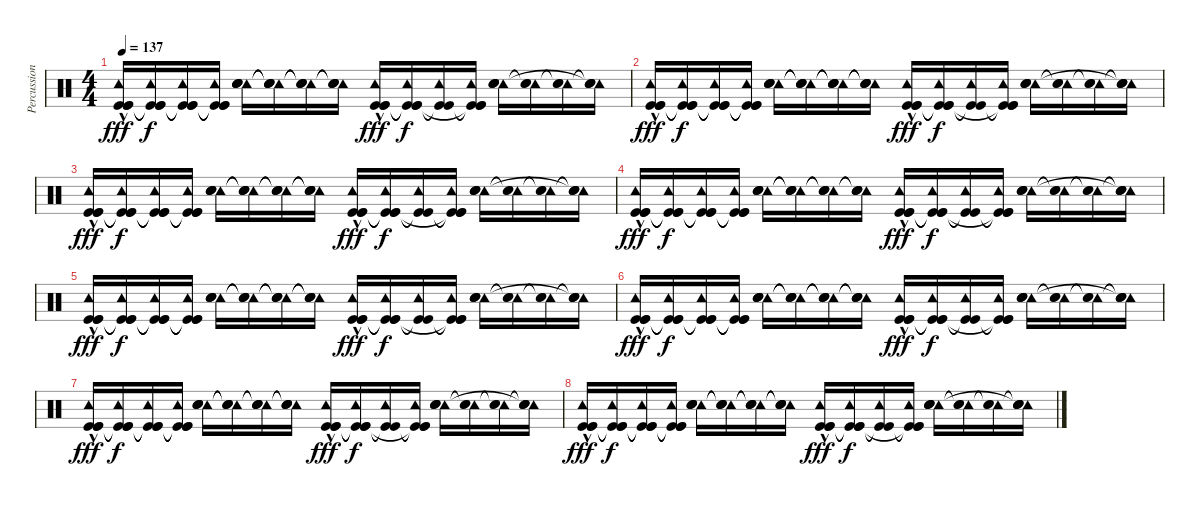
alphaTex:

\track ("Percussion" "Percussion") {instrument percussion}
\staff {score}
\articulation defaults
\ts (4 4)
\tempo 137
\clef neutral
\ks c
("Tambourine (hit)"{hac} "Kick (hit)" "Kick (hit)" "Kick (hit)").16{dy fff} ("Tambourine (hit)" "Kick (hit)"{t} "Kick (hit)"{t} "Kick (hit)"{t}).16{dy f} ("Tambourine (hit)" "Kick (hit)"{t} "Kick (hit)"{t} "Kick (hit)"{t}).16 ("Tambourine (hit)" "Kick (hit)"{t} "Kick (hit)"{t} "Kick (hit)"{t}).16 ("Tambourine (hit)" "Snare (hit) 2" "Snare (hit) 2" "Snare (hit) 2").16 ("Tambourine (hit)" "Snare (hit) 2"{t} "Snare (hit) 2"{t} "Snare (hit) 2"{t}).16 ("Tambourine (hit)" "Snare (hit) 2"{t} "Snare (hit) 2"{t} "Snare (hit) 2"{t}).16 ("Tambourine (hit)" "Snare (hit) 2"{t} "Snare (hit) 2"{t} "Snare (hit) 2"{t}).16 ("Tambourine (hit)"{hac} "Kick (hit)" "Kick (hit)" "Kick (hit)").16{dy fff} ("Tambourine (hit)" "Kick (hit)"{t} "Kick (hit)"{t} "Kick (hit)"{t}).16{dy f} ("Tambourine (hit)" "Kick (hit)"{t} "Kick (hit)"{t}).16 ("Tambourine (hit)" "Kick (hit)"{t} "Kick (hit)"{t} "Kick (hit)"{t}).16 ("Tambourine (hit)" "Snare (hit) 2" "Snare (hit) 2" "Snare (hit) 2").16 ("Tambourine (hit)" "Snare (hit) 2"{t} "Snare (hit) 2"{t}).16 ("Tambourine (hit)" "Snare (hit) 2"{t} "Snare (hit) 2"{t}).16 ("Tambourine (hit)" "Snare (hit) 2"{t} "Snare (hit) 2"{t} "Snare (hit) 2"{t}).16 |
("Tambourine (hit)"{hac} "Kick (hit)" "Kick (hit)" "Kick (hit)").16{dy fff} ("Tambourine (hit)" "Kick (hit)"{t} "Kick (hit)"{t} "Kick (hit)"{t}).16{dy f} ("Tambourine (hit)" "Kick (hit)"{t} "Kick (hit)"{t} "Kick (hit)"{t}).16 ("Tambourine (hit)" "Kick (hit)"{t} "Kick (hit)"{t} "Kick (hit)"{t}).16 ("Tambourine (hit)" "Snare (hit) 2" "Snare (hit) 2" "Snare (hit) 2").16 ("Tambourine (hit)" "Snare (hit) 2"{t} "Snare (hit) 2"{t} "Snare (hit) 2"{t}).16 ("Tambourine (hit)" "Snare (hit) 2"{t} "Snare (hit) 2"{t} "Snare (hit) 2"{t}).16 ("Tambourine (hit)" "Snare (hit) 2"{t} "Snare (hit) 2"{t} "Snare (hit) 2"{t}).16 ("Tambourine (hit)"{hac} "Kick (hit)" "Kick (hit)" "Kick (hit)").16{dy fff} ("Tambourine (hit)" "Kick (hit)"{t} "Kick (hit)"{t} "Kick (hit)"{t}).16{dy f} ("Tambourine (hit)" "Kick (hit)"{t} "Kick (hit)"{t}).16 ("Tambourine (hit)" "Kick (hit)"{t} "Kick (hit)"{t} "Kick (hit)"{t}).16 ("Tambourine (hit)" "Snare (hit) 2" "Snare (hit) 2" "Snare (hit) 2").16 ("Tambourine (hit)" "Snare (hit) 2"{t} "Snare (hit) 2"{t}).16 ("Tambourine (hit)" "Snare (hit) 2"{t} "Snare (hit) 2"{t}).16 ("Tambourine (hit)" "Snare (hit) 2"{t} "Snare (hit) 2"{t} "Snare (hit) 2"{t}).16 |
("Tambourine (hit)"{hac} "Kick (hit)" "Kick (hit)" "Kick (hit)").16{dy fff} ("Tambourine (hit)" "Kick (hit)"{t} "Kick (hit)"{t} "Kick (hit)"{t}).16{dy f} ("Tambourine (hit)" "Kick (hit)"{t} "Kick (hit)"{t} "Kick (hit)"{t}).16 ("Tambourine (hit)" "Kick (hit)"{t} "Kick (hit)"{t} "Kick (hit)"{t}).16 ("Tambourine (hit)" "Snare (hit) 2" "Snare (hit) 2" "Snare (hit) 2").16 ("Tambourine (hit)" "Snare (hit) 2"{t} "Snare (hit) 2"{t} "Snare (hit) 2"{t}).16 ("Tambourine (hit)" "Snare (hit) 2"{t} "Snare (hit) 2"{t} "Snare (hit) 2"{t}).16 ("Tambourine (hit)" "Snare (hit) 2"{t} "Snare (hit) 2"{t} "Snare (hit) 2"{t}).16 ("Tambourine (hit)"{hac} "Kick (hit)" "Kick (hit)" "Kick (hit)").16{dy fff} ("Tambourine (hit)" "Kick (hit)"{t} "Kick (hit)"{t} "Kick (hit)"{t}).16{dy f} ("Tambourine (hit)" "Kick (hit)"{t} "Kick (hit)"{t}).16 ("Tambourine (hit)" "Kick (hit)"{t} "Kick (hit)"{t} "Kick (hit)"{t}).16 ("Tambourine (hit)" "Snare (hit) 2" "Snare (hit) 2" "Snare (hit) 2").16 ("Tambourine (hit)" "Snare (hit) 2"{t} "Snare (hit) 2"{t}).16 ("Tambourine (hit)" "Snare (hit) 2"{t} "Snare (hit) 2"{t}).16 ("Tambourine (hit)" "Snare (hit) 2"{t} "Snare (hit) 2"{t} "Snare (hit) 2"{t}).16 |
("Tambourine (hit)"{hac} "Kick (hit)" "Kick (hit)" "Kick (hit)").16{dy fff} ("Tambourine (hit)" "Kick (hit)"{t} "Kick (hit)"{t} "Kick (hit)"{t}).16{dy f} ("Tambourine (hit)" "Kick (hit)"{t} "Kick (hit)"{t} "Kick (hit)"{t}).16 ("Tambourine (hit)" "Kick (hit)"{t} "Kick (hit)"{t} "Kick (hit)"{t}).16 ("Tambourine (hit)" "Snare (hit) 2" "Snare (hit) 2" "Snare (hit) 2").16 ("Tambourine (hit)" "Snare (hit) 2"{t} "Snare (hit) 2"{t} "Snare (hit) 2"{t}).16 ("Tambourine (hit)" "Snare (hit) 2"{t} "Snare (hit) 2"{t} "Snare (hit) 2"{t}).16 ("Tambourine (hit)" "Snare (hit) 2"{t} "Snare (hit) 2"{t} "Snare (hit) 2"{t}).16 ("Tambourine (hit)"{hac} "Kick (hit)" "Kick (hit)" "Kick (hit)").16{dy fff} ("Tambourine (hit)" "Kick (hit)"{t} "Kick (hit)"{t} "Kick (hit)"{t}).16{dy f} ("Tambourine (hit)" "Kick (hit)"{t} "Kick (hit)"{t}).16 ("Tambourine (hit)" "Kick (hit)"{t} "Kick (hit)"{t} "Kick (hit)"{t}).16 ("Tambourine (hit)" "Snare (hit) 2" "Snare (hit) 2" "Snare (hit) 2").16 ("Tambourine (hit)" "Snare (hit) 2"{t} "Snare (hit) 2"{t}).16 ("Tambourine (hit)" "Snare (hit) 2"{t} "Snare (hit) 2"{t}).16 ("Tambourine (hit)" "Snare (hit) 2"{t} "Snare (hit) 2"{t} "Snare (hit) 2"{t}).16 |
("Tambourine (hit)"{hac} "Kick (hit)" "Kick (hit)" "Kick (hit)").16{dy fff} ("Tambourine (hit)" "Kick (hit)"{t} "Kick (hit)"{t} "Kick (hit)"{t}).16{dy f} ("Tambourine (hit)" "Kick (hit)"{t} "Kick (hit)"{t} "Kick (hit)"{t}).16 ("Tambourine (hit)" "Kick (hit)"{t} "Kick (hit)"{t} "Kick (hit)"{t}).16 ("Tambourine (hit)" "Snare (hit) 2" "Snare (hit) 2" "Snare (hit) 2").16 ("Tambourine (hit)" "Snare (hit) 2"{t} "Snare (hit) 2"{t} "Snare (hit) 2"{t}).16 ("Tambourine (hit)" "Snare (hit) 2"{t} "Snare (hit) 2"{t} "Snare (hit) 2"{t}).16 ("Tambourine (hit)" "Snare (hit) 2"{t} "Snare (hit) 2"{t} "Snare (hit) 2"{t}).16 ("Tambourine (hit)"{hac} "Kick (hit)" "Kick (hit)" "Kick (hit)").16{dy fff} ("Tambourine (hit)" "Kick (hit)"{t} "Kick (hit)"{t} "Kick (hit)"{t}).16{dy f} ("Tambourine (hit)" "Kick (hit)"{t} "Kick (hit)"{t}).16 ("Tambourine (hit)" "Kick (hit)"{t} "Kick (hit)"{t} "Kick (hit)"{t}).16 ("Tambourine (hit)" "Snare (hit) 2" "Snare (hit) 2" "Snare (hit) 2").16 ("Tambourine (hit)" "Snare (hit) 2"{t} "Snare (hit) 2"{t}).16 ("Tambourine (hit)" "Snare (hit) 2"{t} "Snare (hit) 2"{t}).16 ("Tambourine (hit)" "Snare (hit) 2"{t} "Snare (hit) 2"{t} "Snare (hit) 2"{t}).16 |
("Tambourine (hit)"{hac} "Kick (hit)" "Kick (hit)" "Kick (hit)").16{dy fff} ("Tambourine (hit)" "Kick (hit)"{t} "Kick (hit)"{t} "Kick (hit)"{t}).16{dy f} ("Tambourine (hit)" "Kick (hit)"{t} "Kick (hit)"{t} "Kick (hit)"{t}).16 ("Tambourine (hit)" "Kick (hit)"{t} "Kick (hit)"{t} "Kick (hit)"{t}).16 ("Tambourine (hit)" "Snare (hit) 2" "Snare (hit) 2" "Snare (hit) 2").16 ("Tambourine (hit)" "Snare (hit) 2"{t} "Snare (hit) 2"{t} "Snare (hit) 2"{t}).16 ("Tambourine (hit)" "Snare (hit) 2"{t} "Snare (hit) 2"{t} "Snare (hit) 2"{t}).16 ("Tambourine (hit)" "Snare (hit) 2"{t} "Snare (hit) 2"{t} "Snare (hit) 2"{t}).16 ("Tambourine (hit)"{hac} "Kick (hit)" "Kick (hit)" "Kick (hit)").16{dy fff} ("Tambourine (hit)" "Kick (hit)"{t} "Kick (hit)"{t} "Kick (hit)"{t}).16{dy f} ("Tambourine (hit)" "Kick (hit)"{t} "Kick (hit)"{t}).16 ("Tambourine (hit)" "Kick (hit)"{t} "Kick (hit)"{t} "Kick (hit)"{t}).16 ("Tambourine (hit)" "Snare (hit) 2" "Snare (hit) 2" "Snare (hit) 2").16 ("Tambourine (hit)" "Snare (hit) 2"{t} "Snare (hit) 2"{t}).16 ("Tambourine (hit)" "Snare (hit) 2"{t} "Snare (hit) 2"{t}).16 ("Tambourine (hit)" "Snare (hit) 2"{t} "Snare (hit) 2"{t} "Snare (hit) 2"{t}).16 |
("Tambourine (hit)"{hac} "Kick (hit)" "Kick (hit)" "Kick (hit)").16{dy fff} ("Tambourine (hit)" "Kick (hit)"{t} "Kick (hit)"{t} "Kick (hit)"{t}).16{dy f} ("Tambourine (hit)" "Kick (hit)"{t} "Kick (hit)"{t} "Kick (hit)"{t}).16 ("Tambourine (hit)" "Kick (hit)"{t} "Kick (hit)"{t} "Kick (hit)"{t}).16 ("Tambourine (hit)" "Snare (hit) 2" "Snare (hit) 2" "Snare (hit) 2").16 ("Tambourine (hit)" "Snare (hit) 2"{t} "Snare (hit) 2"{t} "Snare (hit) 2"{t}).16 ("Tambourine (hit)" "Snare (hit) 2"{t} "Snare (hit) 2"{t} "Snare (hit) 2"{t}).16 ("Tambourine (hit)" "Snare (hit) 2"{t} "Snare (hit) 2"{t} "Snare (hit) 2"{t}).16 ("Tambourine (hit)"{hac} "Kick (hit)" "Kick (hit)" "Kick (hit)").16{dy fff} ("Tambourine (hit)" "Kick (hit)"{t} "Kick (hit)"{t} "Kick (hit)"{t}).16{dy f} ("Tambourine (hit)" "Kick (hit)"{t} "Kick (hit)"{t}).16 ("Tambourine (hit)" "Kick (hit)"{t} "Kick (hit)"{t} "Kick (hit)"{t}).16 ("Tambourine (hit)" "Snare (hit) 2" "Snare (hit) 2" "Snare (hit) 2").16 ("Tambourine (hit)" "Snare (hit) 2"{t} "Snare (hit) 2"{t}).16 ("Tambourine (hit)" "Snare (hit) 2"{t} "Snare (hit) 2"{t}).16 ("Tambourine (hit)" "Snare (hit) 2"{t} "Snare (hit) 2"{t} "Snare (hit) 2"{t}).16 |
("Tambourine (hit)"{hac} "Kick (hit)" "Kick (hit)" "Kick (hit)").16{dy fff} ("Tambourine (hit)" "Kick (hit)"{t} "Kick (hit)"{t} "Kick (hit)"{t}).16{dy f} ("Tambourine (hit)" "Kick (hit)"{t} "Kick (hit)"{t} "Kick (hit)"{t}).16 ("Tambourine (hit)" "Kick (hit)"{t} "Kick (hit)"{t} "Kick (hit)"{t}).16 ("Tambourine (hit)" "Snare (hit) 2" "Snare (hit) 2" "Snare (hit) 2").16 ("Tambourine (hit)" "Snare (hit) 2"{t} "Snare (hit) 2"{t} "Snare (hit) 2"{t}).16 ("Tambourine (hit)" "Snare (hit) 2"{t} "Snare (hit) 2"{t} "Snare (hit) 2"{t}).16 ("Tambourine (hit)" "Snare (hit) 2"{t} "Snare (hit) 2"{t} "Snare (hit) 2"{t}).16 ("Tambourine (hit)"{hac} "Kick (hit)" "Kick (hit)" "Kick (hit)").16{dy fff} ("Tambourine (hit)" "Kick (hit)"{t} "Kick (hit)"{t} "Kick (hit)"{t}).16{dy f} ("Tambourine (hit)" "Kick (hit)"{t} "Kick (hit)"{t}).16 ("Tambourine (hit)" "Kick (hit)"{t} "Kick (hit)"{t} "Kick (hit)"{t}).16 ("Tambourine (hit)" "Snare (hit) 2" "Snare (hit) 2" "Snare (hit) 2").16 ("Tambourine (hit)" "Snare (hit) 2"{t} "Snare (hit) 2"{t}).16 ("Tambourine (hit)" "Snare (hit) 2"{t} "Snare (hit) 2"{t}).16 ("Tambourine (hit)" "Snare (hit) 2"{t} "Snare (hit) 2"{t} "Snare (hit) 2"{t}).16
